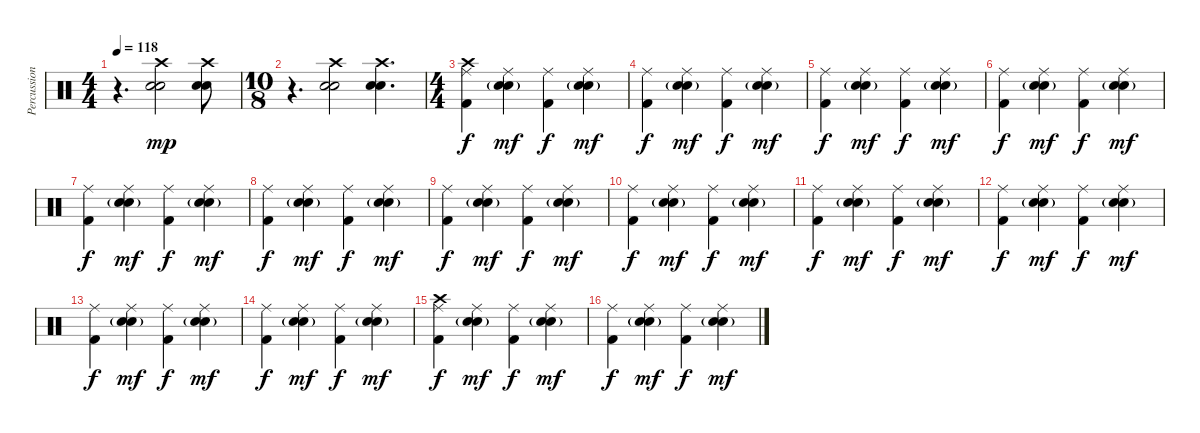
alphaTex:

\track ("Percussion" "Percussion") {instrument percussion}
\staff {score}
\articulation defaults
\ts (4 4)
\tempo 118
\clef neutral
\ks c
r.4{d dy f} ("Crash high (hit)" "Electric Snare (hit)" "Snare (hit) 2").2{dy mp} ("Crash high (hit)" "Electric Snare (hit)" "Snare (hit) 2").8 |
\ts (10 8)
r.4{d} ("Crash high (hit)" "Electric Snare (hit)" "Snare (hit) 2").2 ("Crash high (hit)" "Electric Snare (hit)" "Snare (hit) 2").4{d} |
\ts (4 4)
("Crash high (hit)" "Ride (middle)" "Kick (hit) 2").4{dy f} ("Ride (middle)" "Electric Snare (hit)" "Snare (hit) 2"{g}).4{dy mf} ("Ride (middle)" "Kick (hit) 2").4{dy f} ("Ride (middle)" "Electric Snare (hit)" "Snare (hit) 2"{g}).4{dy mf} |
("Ride (middle)" "Kick (hit) 2").4{dy f} ("Ride (middle)" "Electric Snare (hit)" "Snare (hit) 2"{g}).4{dy mf} ("Ride (middle)" "Kick (hit) 2").4{dy f} ("Ride (middle)" "Electric Snare (hit)" "Snare (hit) 2"{g}).4{dy mf} |
("Ride (middle)" "Kick (hit) 2").4{dy f} ("Ride (middle)" "Electric Snare (hit)" "Snare (hit) 2"{g}).4{dy mf} ("Ride (middle)" "Kick (hit) 2").4{dy f} ("Ride (middle)" "Electric Snare (hit)" "Snare (hit) 2"{g}).4{dy mf} |
("Ride (middle)" "Kick (hit) 2").4{dy f} ("Ride (middle)" "Electric Snare (hit)" "Snare (hit) 2"{g}).4{dy mf} ("Ride (middle)" "Kick (hit) 2").4{dy f} ("Ride (middle)" "Electric Snare (hit)" "Snare (hit) 2"{g}).4{dy mf} |
("Ride (middle)" "Kick (hit) 2").4{dy f} ("Ride (middle)" "Electric Snare (hit)" "Snare (hit) 2"{g}).4{dy mf} ("Ride (middle)" "Kick (hit) 2").4{dy f} ("Ride (middle)" "Electric Snare (hit)" "Snare (hit) 2"{g}).4{dy mf} |
("Ride (middle)" "Kick (hit) 2").4{dy f} ("Ride (middle)" "Electric Snare (hit)" "Snare (hit) 2"{g}).4{dy mf} ("Ride (middle)" "Kick (hit) 2").4{dy f} ("Ride (middle)" "Electric Snare (hit)" "Snare (hit) 2"{g}).4{dy mf} |
("Ride (middle)" "Kick (hit) 2").4{dy f} ("Ride (middle)" "Electric Snare (hit)" "Snare (hit) 2"{g}).4{dy mf} ("Ride (middle)" "Kick (hit) 2").4{dy f} ("Ride (middle)" "Electric Snare (hit)" "Snare (hit) 2"{g}).4{dy mf} |
("Ride (middle)" "Kick (hit) 2").4{dy f} ("Ride (middle)" "Electric Snare (hit)" "Snare (hit) 2"{g}).4{dy mf} ("Ride (middle)" "Kick (hit) 2").4{dy f} ("Ride (middle)" "Electric Snare (hit)" "Snare (hit) 2"{g}).4{dy mf} |
("Ride (middle)" "Kick (hit) 2").4{dy f} ("Ride (middle)" "Electric Snare (hit)" "Snare (hit) 2"{g}).4{dy mf} ("Ride (middle)" "Kick (hit) 2").4{dy f} ("Ride (middle)" "Electric Snare (hit)" "Snare (hit) 2"{g}).4{dy mf} |
("Ride (middle)" "Kick (hit) 2").4{dy f} ("Ride (middle)" "Electric Snare (hit)" "Snare (hit) 2"{g}).4{dy mf} ("Ride (middle)" "Kick (hit) 2").4{dy f} ("Ride (middle)" "Electric Snare (hit)" "Snare (hit) 2"{g}).4{dy mf} |
("Ride (middle)" "Kick (hit) 2").4{dy f} ("Ride (middle)" "Electric Snare (hit)" "Snare (hit) 2"{g}).4{dy mf} ("Ride (middle)" "Kick (hit) 2").4{dy f} ("Ride (middle)" "Electric Snare (hit)" "Snare (hit) 2"{g}).4{dy mf} |
("Ride (middle)" "Kick (hit) 2").4{dy f} ("Ride (middle)" "Electric Snare (hit)" "Snare (hit) 2"{g}).4{dy mf} ("Ride (middle)" "Kick (hit) 2").4{dy f} ("Ride (middle)" "Electric Snare (hit)" "Snare (hit) 2"{g}).4{dy mf} |
("Crash high (hit)" "Ride (middle)" "Kick (hit) 2").4{dy f} ("Ride (middle)" "Electric Snare (hit)" "Snare (hit) 2"{g}).4{dy mf} ("Ride (middle)" "Kick (hit) 2").4{dy f} ("Ride (middle)" "Electric Snare (hit)" "Snare (hit) 2"{g}).4{dy mf} |
("Ride (middle)" "Kick (hit) 2").4{dy f} ("Ride (middle)" "Electric Snare (hit)" "Snare (hit) 2"{g}).4{dy mf} ("Ride (middle)" "Kick (hit) 2").4{dy f} ("Ride (middle)" "Electric Snare (hit)" "Snare (hit) 2"{g}).4{dy mf}
